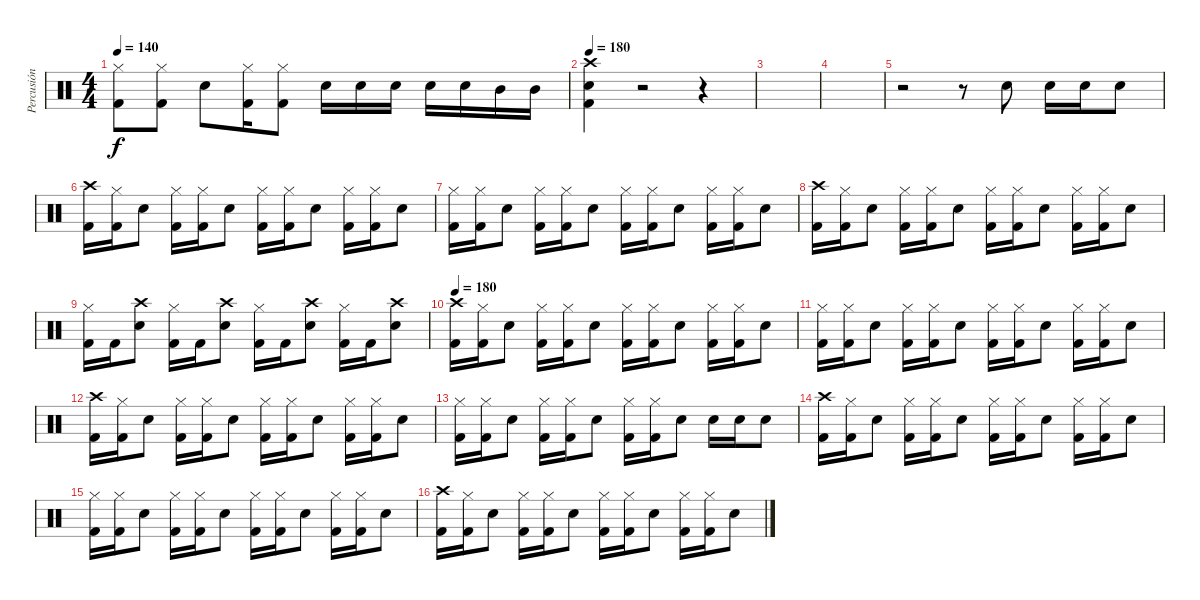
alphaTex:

\track ("Percusión" "Percusión") {instrument percussion}
\staff {score}
\articulation defaults
\ts (4 4)
\tempo 140
\clef neutral
\ks c
("Kick (hit) 2" "Hi-Hat (closed)").8{dy f} ("Kick (hit) 2" "Hi-Hat (closed)").8 "Snare (hit) 2".8 ("Kick (hit) 2" "Hi-Hat (closed)").16 ("Kick (hit) 2" "Hi-Hat (closed)").8 "Snare (hit) 2".16 "Snare (hit) 2".16 "Snare (hit) 2".16 "Snare (hit) 2".16 "Snare (hit) 2".16 "Mid Tom (hit)".16 "Mid Tom (hit)".16 |
\tempo 180
("Kick (hit) 2" "Snare (hit) 2" "Crash high (hit)").4 r.2 r.4 |
|
|
r.2 r.8 "Snare (hit) 2".8 "Snare (hit) 2".16 "Snare (hit) 2".16 "Snare (hit) 2".8 |
("Kick (hit) 2" "Crash high (hit)").16 ("Kick (hit) 2" "Hi-Hat (closed)").16 "Snare (hit) 2".8 ("Kick (hit) 2" "Hi-Hat (closed)").16 ("Kick (hit) 2" "Hi-Hat (closed)").16 "Snare (hit) 2".8 ("Kick (hit) 2" "Hi-Hat (closed)").16 ("Kick (hit) 2" "Hi-Hat (closed)").16 "Snare (hit) 2".8 ("Kick (hit) 2" "Hi-Hat (closed)").16 ("Kick (hit) 2" "Hi-Hat (closed)").16 "Snare (hit) 2".8 |
("Kick (hit) 2" "Hi-Hat (closed)").16 ("Kick (hit) 2" "Hi-Hat (closed)").16 "Snare (hit) 2".8 ("Kick (hit) 2" "Hi-Hat (closed)").16 ("Kick (hit) 2" "Hi-Hat (closed)").16 "Snare (hit) 2".8 ("Kick (hit) 2" "Hi-Hat (closed)").16 ("Kick (hit) 2" "Hi-Hat (closed)").16 "Snare (hit) 2".8 ("Kick (hit) 2" "Hi-Hat (closed)").16 ("Kick (hit) 2" "Hi-Hat (closed)").16 "Snare (hit) 2".8 |
("Kick (hit) 2" "Crash high (hit)").16 ("Kick (hit) 2" "Hi-Hat (closed)").16 "Snare (hit) 2".8 ("Kick (hit) 2" "Hi-Hat (closed)").16 ("Kick (hit) 2" "Hi-Hat (closed)").16 "Snare (hit) 2".8 ("Kick (hit) 2" "Hi-Hat (closed)").16 ("Kick (hit) 2" "Hi-Hat (closed)").16 "Snare (hit) 2".8 ("Kick (hit) 2" "Hi-Hat (closed)").16 ("Kick (hit) 2" "Hi-Hat (closed)").16 "Snare (hit) 2".8 |
("Kick (hit) 2" "Hi-Hat (closed)").16 "Kick (hit) 2".16 ("Snare (hit) 2" "Crash high (hit)").8 ("Kick (hit) 2" "Hi-Hat (closed)").16 "Kick (hit) 2".16 ("Snare (hit) 2" "Crash high (hit)").8 ("Kick (hit) 2" "Hi-Hat (closed)").16 "Kick (hit) 2".16 ("Snare (hit) 2" "Crash high (hit)").8 ("Kick (hit) 2" "Hi-Hat (closed)").16 "Kick (hit) 2".16 ("Snare (hit) 2" "Crash high (hit)").8 |
\tempo 180
("Kick (hit) 2" "Crash high (hit)").16 ("Kick (hit) 2" "Hi-Hat (closed)").16 "Snare (hit) 2".8 ("Kick (hit) 2" "Hi-Hat (closed)").16 ("Kick (hit) 2" "Hi-Hat (closed)").16 "Snare (hit) 2".8 ("Kick (hit) 2" "Hi-Hat (closed)").16 ("Kick (hit) 2" "Hi-Hat (closed)").16 "Snare (hit) 2".8 ("Kick (hit) 2" "Hi-Hat (closed)").16 ("Kick (hit) 2" "Hi-Hat (closed)").16 "Snare (hit) 2".8 |
("Kick (hit) 2" "Hi-Hat (closed)").16 ("Kick (hit) 2" "Hi-Hat (closed)").16 "Snare (hit) 2".8 ("Kick (hit) 2" "Hi-Hat (closed)").16 ("Kick (hit) 2" "Hi-Hat (closed)").16 "Snare (hit) 2".8 ("Kick (hit) 2" "Hi-Hat (closed)").16 ("Kick (hit) 2" "Hi-Hat (closed)").16 "Snare (hit) 2".8 ("Kick (hit) 2" "Hi-Hat (closed)").16 ("Kick (hit) 2" "Hi-Hat (closed)").16 "Snare (hit) 2".8 |
("Kick (hit) 2" "Crash high (hit)").16 ("Kick (hit) 2" "Hi-Hat (closed)").16 "Snare (hit) 2".8 ("Kick (hit) 2" "Hi-Hat (closed)").16 ("Kick (hit) 2" "Hi-Hat (closed)").16 "Snare (hit) 2".8 ("Kick (hit) 2" "Hi-Hat (closed)").16 ("Kick (hit) 2" "Hi-Hat (closed)").16 "Snare (hit) 2".8 ("Kick (hit) 2" "Hi-Hat (closed)").16 ("Kick (hit) 2" "Hi-Hat (closed)").16 "Snare (hit) 2".8 |
("Kick (hit) 2" "Hi-Hat (closed)").16 ("Kick (hit) 2" "Hi-Hat (closed)").16 "Snare (hit) 2".8 ("Kick (hit) 2" "Hi-Hat (closed)").16 ("Kick (hit) 2" "Hi-Hat (closed)").16 "Snare (hit) 2".8 ("Kick (hit) 2" "Hi-Hat (closed)").16 ("Kick (hit) 2" "Hi-Hat (closed)").16 "Snare (hit) 2".8 "Snare (hit) 2".16 "Snare (hit) 2".16 "Snare (hit) 2".8 |
("Kick (hit) 2" "Crash high (hit)").16 ("Kick (hit) 2" "Hi-Hat (closed)").16 "Snare (hit) 2".8 ("Kick (hit) 2" "Hi-Hat (closed)").16 ("Kick (hit) 2" "Hi-Hat (closed)").16 "Snare (hit) 2".8 ("Kick (hit) 2" "Hi-Hat (closed)").16 ("Kick (hit) 2" "Hi-Hat (closed)").16 "Snare (hit) 2".8 ("Kick (hit) 2" "Hi-Hat (closed)").16 ("Kick (hit) 2" "Hi-Hat (closed)").16 "Snare (hit) 2".8 |
("Kick (hit) 2" "Hi-Hat (closed)").16 ("Kick (hit) 2" "Hi-Hat (closed)").16 "Snare (hit) 2".8 ("Kick (hit) 2" "Hi-Hat (closed)").16 ("Kick (hit) 2" "Hi-Hat (closed)").16 "Snare (hit) 2".8 ("Kick (hit) 2" "Hi-Hat (closed)").16 ("Kick (hit) 2" "Hi-Hat (closed)").16 "Snare (hit) 2".8 ("Kick (hit) 2" "Hi-Hat (closed)").16 ("Kick (hit) 2" "Hi-Hat (closed)").16 "Snare (hit) 2".8 |
("Kick (hit) 2" "Crash high (hit)").16 ("Kick (hit) 2" "Hi-Hat (closed)").16 "Snare (hit) 2".8 ("Kick (hit) 2" "Hi-Hat (closed)").16 ("Kick (hit) 2" "Hi-Hat (closed)").16 "Snare (hit) 2".8 ("Kick (hit) 2" "Hi-Hat (closed)").16 ("Kick (hit) 2" "Hi-Hat (closed)").16 "Snare (hit) 2".8 ("Kick (hit) 2" "Hi-Hat (closed)").16 ("Kick (hit) 2" "Hi-Hat (closed)").16 "Snare (hit) 2".8
